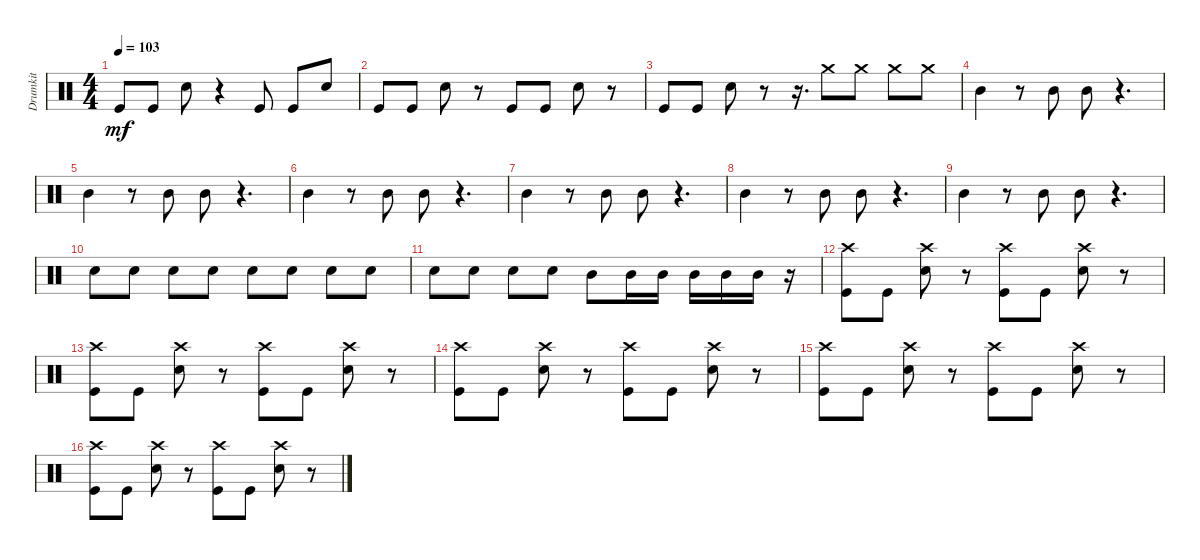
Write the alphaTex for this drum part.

\track ("Drumkit" "Drumkit") {instrument percussion}
\staff {score}
\articulation defaults
\ts (4 4)
\tempo 103
\clef neutral
\ks c "Kick (hit)".8{dy mf} "Kick (hit)".8 "Snare (hit) 2".8
r.4 "Kick (hit)".8 "Kick (hit)".8 "Snare (hit) 2".8 |
"Kick (hit)".8 "Kick (hit)".8 "Snare (hit) 2".8 r.8 "Kick (hit)".8 "Kick (hit)".8 "Snare (hit) 2".8 r.8 |
"Kick (hit)".8 "Kick (hit)".8 "Snare (hit) 2".8 r.8 r.16{d} "Crash medium (hit)".8 "Crash medium (hit)".8 "Crash medium (hit)".8 "Crash medium (hit)".8 |
"Mid Tom (hit)".4 r.8 "Mid Tom (hit)".8 "Mid Tom (hit)".8 r.4{d} |
"Mid Tom (hit)".4 r.8 "Mid Tom (hit)".8 "Mid Tom (hit)".8 r.4{d} |
"Mid Tom (hit)".4 r.8 "Mid Tom (hit)".8 "Mid Tom (hit)".8 r.4{d} |
"Mid Tom (hit)".4 r.8 "Mid Tom (hit)".8 "Mid Tom (hit)".8 r.4{d} |
"Mid Tom (hit)".4 r.8 "Mid Tom (hit)".8 "Mid Tom (hit)".8 r.4{d} |
"Mid Tom (hit)".4 r.8 "Mid Tom (hit)".8 "Mid Tom (hit)".8 r.4{d} |
"Snare (hit) 2".8 "Snare (hit) 2".8 "Snare (hit) 2".8 "Snare (hit) 2".8 "Snare (hit) 2".8 "Snare (hit) 2".8 "Snare (hit) 2".8 "Snare (hit) 2".8 |
"Snare (hit) 2".8 "Snare (hit) 2".8 "Snare (hit) 2".8 "Snare (hit) 2".8 "Mid Tom (hit)".8 "Mid Tom (hit)".16 "Mid Tom (hit)".16 "Mid Tom (hit)".16 "Mid Tom (hit)".16 "Mid Tom (hit)".16 r.16 |
("Kick (hit)" "Crash high (hit)").8 "Kick (hit)".8 ("Crash high (hit)" "Snare (hit) 2").8 r.8 ("Kick (hit)" "Crash high (hit)").8 "Kick (hit)".8 ("Crash high (hit)" "Snare (hit) 2").8 r.8 |
("Kick (hit)" "Crash high (hit)").8 "Kick (hit)".8 ("Crash high (hit)" "Snare (hit) 2").8 r.8 ("Kick (hit)" "Crash high (hit)").8 "Kick (hit)".8 ("Crash high (hit)" "Snare (hit) 2").8 r.8 |
("Kick (hit)" "Crash high (hit)").8 "Kick (hit)".8 ("Crash high (hit)" "Snare (hit) 2").8 r.8 ("Kick (hit)" "Crash high (hit)").8 "Kick (hit)".8 ("Crash high (hit)" "Snare (hit) 2").8 r.8 |
("Kick (hit)" "Crash high (hit)").8 "Kick (hit)".8 ("Crash high (hit)" "Snare (hit) 2").8 r.8 ("Kick (hit)" "Crash high (hit)").8 "Kick (hit)".8 ("Crash high (hit)" "Snare (hit) 2").8 r.8 |
("Kick (hit)" "Crash high (hit)").8 "Kick (hit)".8 ("Crash high (hit)" "Snare (hit) 2").8 r.8 ("Kick (hit)" "Crash high (hit)").8 "Kick (hit)".8 ("Crash high (hit)" "Snare (hit) 2").8 r.8
